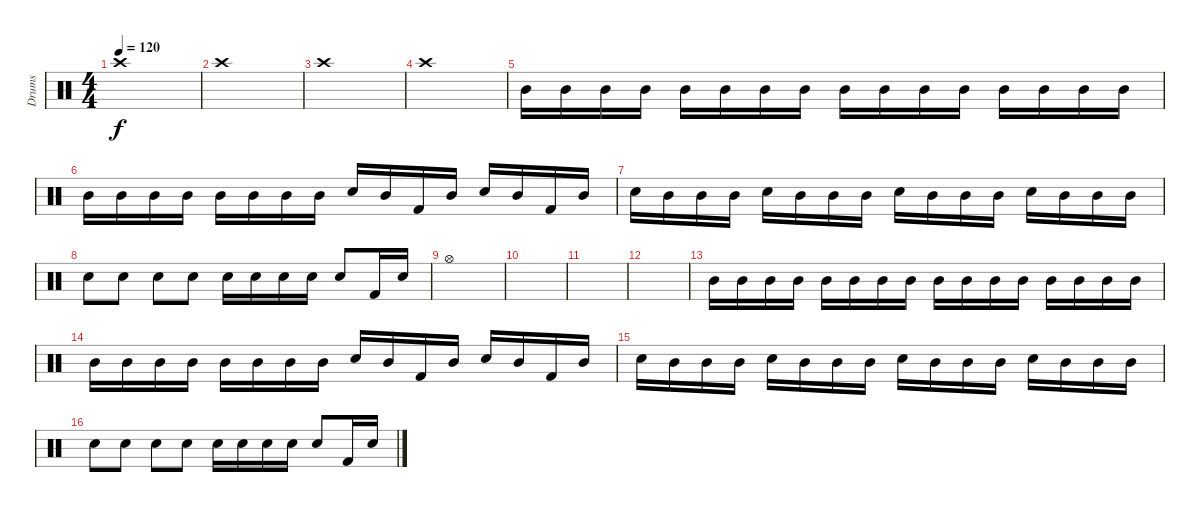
\track ("Drums" "Drums") {instrument percussion}
\staff {score}
\articulation defaults
\ts (4 4)
\tempo 120
\clef neutral
\ks c "Crash high (hit)".1{dy f}
|
"Crash high (hit)".1 |
"Crash high (hit)".1 |
"Crash high (hit)".1 |
"Mid Tom (hit)".16 "Mid Tom (hit)".16 "Mid Tom (hit)".16 "Mid Tom (hit)".16 "Mid Tom (hit)".16 "Mid Tom (hit)".16 "Mid Tom (hit)".16 "Mid Tom (hit)".16 "Mid Tom (hit)".16 "Mid Tom (hit)".16 "Mid Tom (hit)".16 "Mid Tom (hit)".16 "Mid Tom (hit)".16 "Mid Tom (hit)".16 "Mid Tom (hit)".16 "Mid Tom (hit)".16 |
"Mid Tom (hit)".16 "Mid Tom (hit)".16 "Mid Tom (hit)".16 "Mid Tom (hit)".16 "Mid Tom (hit)".16 "Mid Tom (hit)".16 "Mid Tom (hit)".16 "Mid Tom (hit)".16 "Electric Snare (hit)".16 "Mid Tom (hit)".16 "Kick (hit) 2".16 "Mid Tom (hit)".16 "Electric Snare (hit)".16 "Mid Tom (hit)".16 "Kick (hit) 2".16 "Mid Tom (hit)".16 |
"Electric Snare (hit)".16 "Mid Tom (hit)".16 "Mid Tom (hit)".16 "Mid Tom (hit)".16 "Electric Snare (hit)".16 "Mid Tom (hit)".16 "Mid Tom (hit)".16 "Mid Tom (hit)".16 "Electric Snare (hit)".16 "Mid Tom (hit)".16 "Mid Tom (hit)".16 "Mid Tom (hit)".16 "Electric Snare (hit)".16 "Mid Tom (hit)".16 "Mid Tom (hit)".16 "Mid Tom (hit)".16 |
"Electric Snare (hit)".8 "Electric Snare (hit)".8 "Electric Snare (hit)".8 "Electric Snare (hit)".8 "Electric Snare (hit)".16 "Electric Snare (hit)".16 "Electric Snare (hit)".16 "Electric Snare (hit)".16 "Electric Snare (hit)".8 "Kick (hit) 2".16 "Electric Snare (hit)".16 |
"Hi-Hat (open)".1 |
|
|
|
"Mid Tom (hit)".16 "Mid Tom (hit)".16 "Mid Tom (hit)".16 "Mid Tom (hit)".16 "Mid Tom (hit)".16 "Mid Tom (hit)".16 "Mid Tom (hit)".16 "Mid Tom (hit)".16 "Mid Tom (hit)".16 "Mid Tom (hit)".16 "Mid Tom (hit)".16 "Mid Tom (hit)".16 "Mid Tom (hit)".16 "Mid Tom (hit)".16 "Mid Tom (hit)".16 "Mid Tom (hit)".16 |
"Mid Tom (hit)".16 "Mid Tom (hit)".16 "Mid Tom (hit)".16 "Mid Tom (hit)".16 "Mid Tom (hit)".16 "Mid Tom (hit)".16 "Mid Tom (hit)".16 "Mid Tom (hit)".16 "Electric Snare (hit)".16 "Mid Tom (hit)".16 "Kick (hit) 2".16 "Mid Tom (hit)".16 "Electric Snare (hit)".16 "Mid Tom (hit)".16 "Kick (hit) 2".16 "Mid Tom (hit)".16 |
"Electric Snare (hit)".16 "Mid Tom (hit)".16 "Mid Tom (hit)".16 "Mid Tom (hit)".16 "Electric Snare (hit)".16 "Mid Tom (hit)".16 "Mid Tom (hit)".16 "Mid Tom (hit)".16 "Electric Snare (hit)".16 "Mid Tom (hit)".16 "Mid Tom (hit)".16 "Mid Tom (hit)".16 "Electric Snare (hit)".16 "Mid Tom (hit)".16 "Mid Tom (hit)".16 "Mid Tom (hit)".16 |
"Electric Snare (hit)".8 "Electric Snare (hit)".8 "Electric Snare (hit)".8 "Electric Snare (hit)".8 "Electric Snare (hit)".16 "Electric Snare (hit)".16 "Electric Snare (hit)".16 "Electric Snare (hit)".16 "Electric Snare (hit)".8 "Kick (hit) 2".16 "Electric Snare (hit)".16
